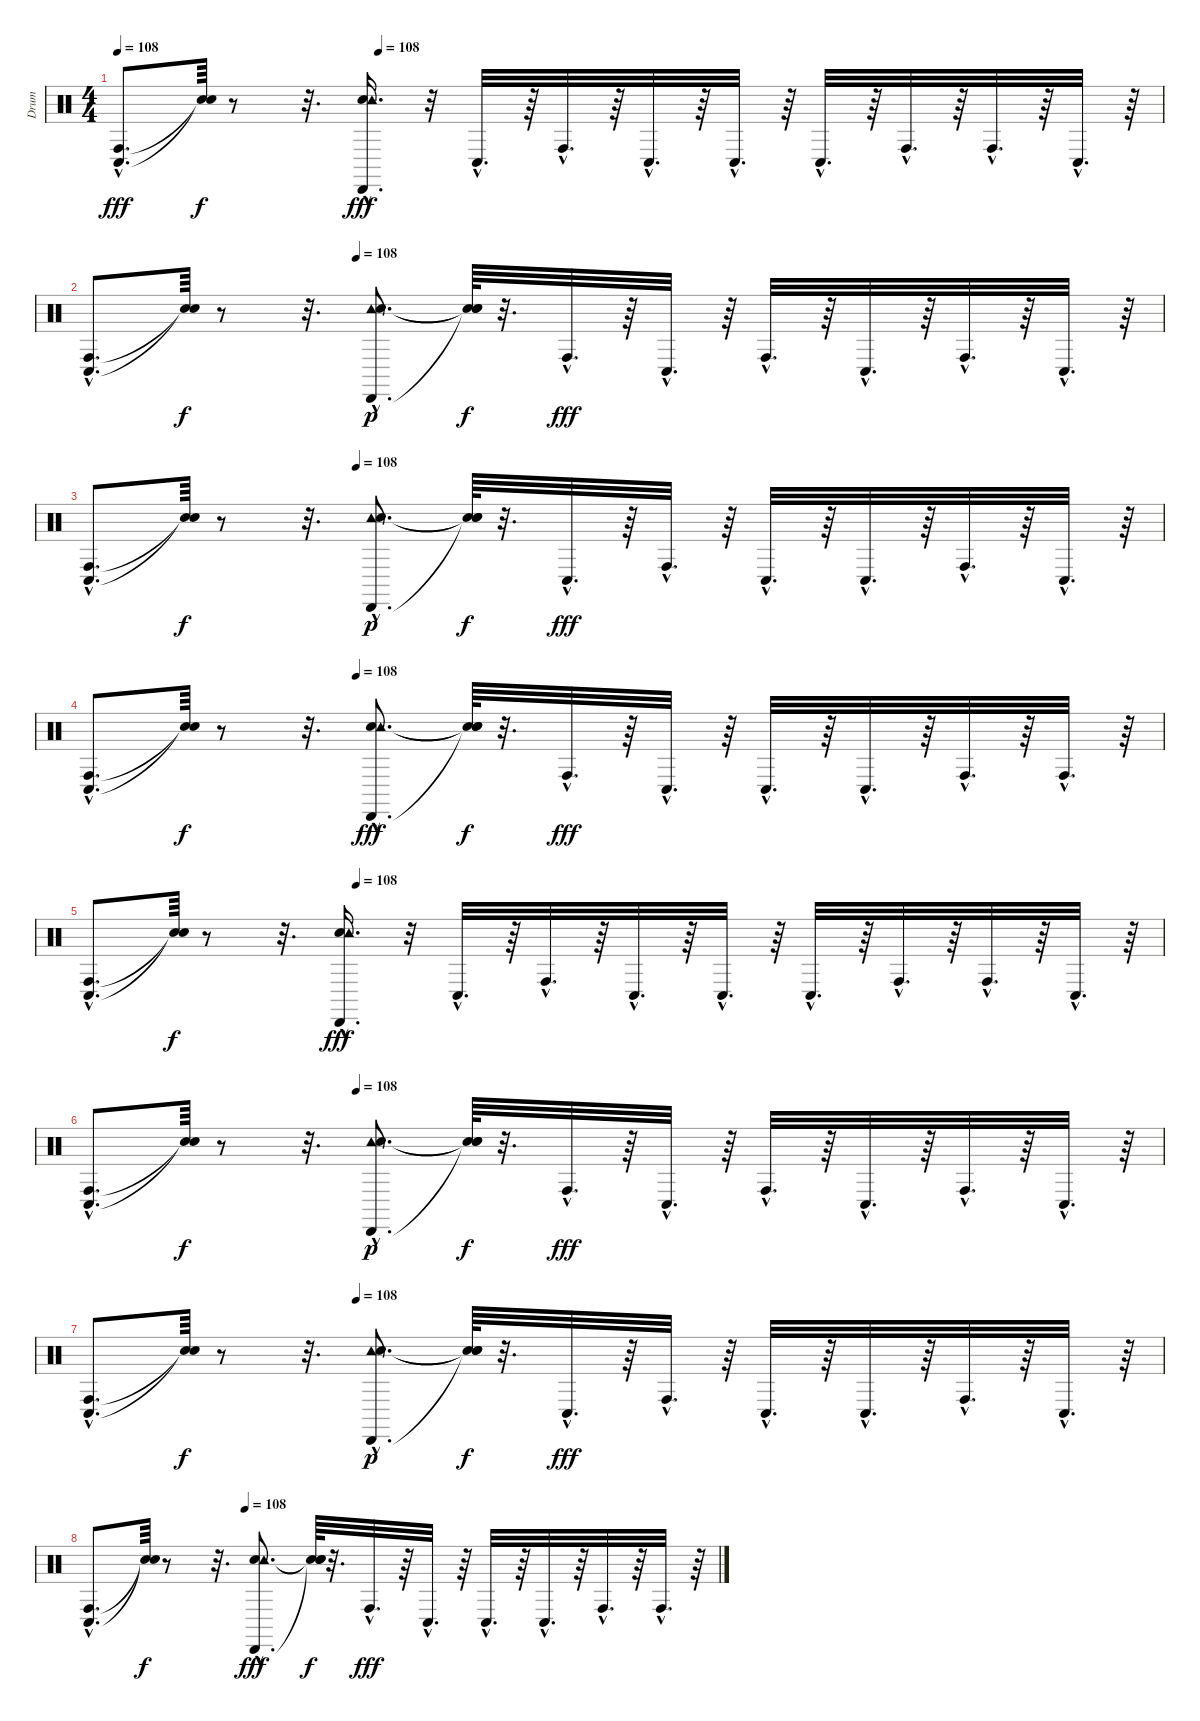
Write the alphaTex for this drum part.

\track ("Drum" "Drum") {instrument percussion}
\staff {score}
\articulation defaults
\ts (4 4)
\tempo 108
\tempo (108 0.25)
\clef neutral
\ks c
("Conga low (hit)"{hac} "Conga high (hit)"{hac}).8{d dy fff} ("Snare (hit)"{t} "Snare (hit)"{t}).64{dy f} r.8 r.32{d} ("Snare (hit) 2"{hac} "Tambourine (hit)"{hac} "Cabasa (hit)"{hac}).16{d dy fff} r.32 "Conga low (hit)"{hac}.32{d} r.64 "Conga high (hit)"{hac}.32{d} r.64 "Conga low (hit)"{hac}.32{d} r.64 "Conga low (hit)"{hac}.32{d} r.64 "Conga low (hit)"{hac}.32{d} r.64 "Conga high (hit)"{hac}.32{d} r.64 "Conga high (hit)"{hac}.32{d} r.64 "Conga low (hit)"{hac}.32{d} r.64 |
\tempo (108 0.25)
("Conga high (hit)"{hac} "Conga low (hit)"{hac}).8{d} ("Snare (hit)"{t} "Snare (hit)"{t}).64{dy f} r.8 r.32{d} ("Cabasa (hit)"{hac} "Tambourine (hit)"{hac} "Snare (hit) 2"{hac}).8{d dy p} ("Snare (hit)"{t} "Snare (hit)"{t} "Snare (hit)"{t}).64{dy f} r.32{d} "Conga high (hit)"{hac}.32{d dy fff} r.64 "Conga low (hit)"{hac}.32{d} r.64 "Conga high (hit)"{hac}.32{d} r.64 "Conga low (hit)"{hac}.32{d} r.64 "Conga high (hit)"{hac}.32{d} r.64 "Conga low (hit)"{hac}.32{d} r.64 |
\tempo (108 0.25)
("Conga high (hit)"{hac} "Conga low (hit)"{hac}).8{d} ("Snare (hit)"{t} "Snare (hit)"{t}).64{dy f} r.8 r.32{d} ("Cabasa (hit)"{hac} "Tambourine (hit)"{hac} "Snare (hit) 2"{hac}).8{d dy p} ("Snare (hit)"{t} "Snare (hit)"{t} "Snare (hit)"{t}).64{dy f} r.32{d} "Conga low (hit)"{hac}.32{d dy fff} r.64 "Conga high (hit)"{hac}.32{d} r.64 "Conga low (hit)"{hac}.32{d} r.64 "Conga low (hit)"{hac}.32{d} r.64 "Conga high (hit)"{hac}.32{d} r.64 "Conga low (hit)"{hac}.32{d} r.64 |
\tempo (108 0.25)
("Conga low (hit)"{hac} "Conga high (hit)"{hac}).8{d} ("Snare (hit)"{t} "Snare (hit)"{t}).64{dy f} r.8 r.32{d} ("Snare (hit) 2"{hac} "Tambourine (hit)"{hac} "Cabasa (hit)"{hac}).8{d dy fff} ("Snare (hit)"{t} "Snare (hit)"{t} "Snare (hit)"{t}).64{dy f} r.32{d} "Conga high (hit)"{hac}.32{d dy fff} r.64 "Conga low (hit)"{hac}.32{d} r.64 "Conga low (hit)"{hac}.32{d} r.64 "Conga low (hit)"{hac}.32{d} r.64 "Conga high (hit)"{hac}.32{d} r.64 "Conga high (hit)"{hac}.32{d} r.64 |
\tempo (108 0.25)
("Conga low (hit)"{hac} "Conga high (hit)"{hac}).8{d} ("Snare (hit)"{t} "Snare (hit)"{t}).64{dy f} r.8 r.32{d} ("Snare (hit) 2"{hac} "Tambourine (hit)"{hac} "Cabasa (hit)"{hac}).16{d dy fff} r.32 "Conga low (hit)"{hac}.32{d} r.64 "Conga high (hit)"{hac}.32{d} r.64 "Conga low (hit)"{hac}.32{d} r.64 "Conga low (hit)"{hac}.32{d} r.64 "Conga low (hit)"{hac}.32{d} r.64 "Conga high (hit)"{hac}.32{d} r.64 "Conga high (hit)"{hac}.32{d} r.64 "Conga low (hit)"{hac}.32{d} r.64 |
\tempo (108 0.25)
("Conga high (hit)"{hac} "Conga low (hit)"{hac}).8{d} ("Snare (hit)"{t} "Snare (hit)"{t}).64{dy f} r.8 r.32{d} ("Cabasa (hit)"{hac} "Tambourine (hit)"{hac} "Snare (hit) 2"{hac}).8{d dy p} ("Snare (hit)"{t} "Snare (hit)"{t} "Snare (hit)"{t}).64{dy f} r.32{d} "Conga high (hit)"{hac}.32{d dy fff} r.64 "Conga low (hit)"{hac}.32{d} r.64 "Conga high (hit)"{hac}.32{d} r.64 "Conga low (hit)"{hac}.32{d} r.64 "Conga high (hit)"{hac}.32{d} r.64 "Conga low (hit)"{hac}.32{d} r.64 |
\tempo (108 0.25)
("Conga high (hit)"{hac} "Conga low (hit)"{hac}).8{d} ("Snare (hit)"{t} "Snare (hit)"{t}).64{dy f} r.8 r.32{d} ("Cabasa (hit)"{hac} "Tambourine (hit)"{hac} "Snare (hit) 2"{hac}).8{d dy p} ("Snare (hit)"{t} "Snare (hit)"{t} "Snare (hit)"{t}).64{dy f} r.32{d} "Conga low (hit)"{hac}.32{d dy fff} r.64 "Conga high (hit)"{hac}.32{d} r.64 "Conga low (hit)"{hac}.32{d} r.64 "Conga low (hit)"{hac}.32{d} r.64 "Conga high (hit)"{hac}.32{d} r.64 "Conga low (hit)"{hac}.32{d} r.64 |
\tempo (108 0.25)
("Conga low (hit)"{hac} "Conga high (hit)"{hac}).8{d} ("Snare (hit)"{t} "Snare (hit)"{t}).64{dy f} r.8 r.32{d} ("Snare (hit) 2"{hac} "Tambourine (hit)"{hac} "Cabasa (hit)"{hac}).8{d dy fff} ("Snare (hit)"{t} "Snare (hit)"{t} "Snare (hit)"{t}).64{dy f} r.32{d} "Conga high (hit)"{hac}.32{d dy fff} r.64 "Conga low (hit)"{hac}.32{d} r.64 "Conga low (hit)"{hac}.32{d} r.64 "Conga low (hit)"{hac}.32{d} r.64 "Conga high (hit)"{hac}.32{d} r.64 "Conga high (hit)"{hac}.32{d} r.64
